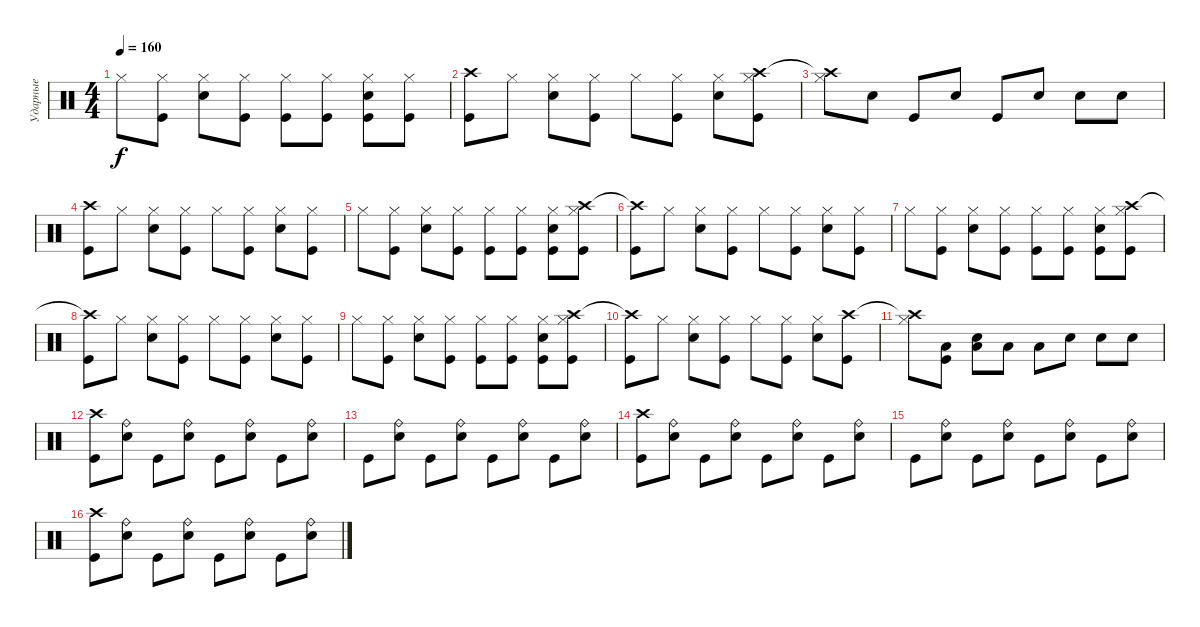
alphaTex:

\track ("Ударные" "Ударные") {instrument percussion}
\staff {score}
\articulation defaults
\ts (4 4)
\tempo 160
\clef neutral
\ks c "Hi-Hat (closed)".8{dy f}
("Hi-Hat (closed)" "Kick (hit)").8 ("Hi-Hat (closed)" "Electric Snare (hit)").8 ("Hi-Hat (closed)" "Kick (hit)").8 ("Hi-Hat (closed)" "Kick (hit)").8 ("Hi-Hat (closed)" "Kick (hit)").8 ("Hi-Hat (closed)" "Electric Snare (hit)" "Kick (hit)").8 ("Hi-Hat (closed)" "Kick (hit)").8 |
("Crash high (hit)" "Kick (hit)").8 "Hi-Hat (closed)".8 ("Hi-Hat (closed)" "Electric Snare (hit)").8 ("Hi-Hat (closed)" "Kick (hit)").8 "Hi-Hat (closed)".8 ("Hi-Hat (closed)" "Kick (hit)").8 ("Hi-Hat (closed)" "Electric Snare (hit)").8 ("Crash high (hit)" "Hi-Hat (closed)" "Kick (hit)").8 |
("Crash high (hit)"{t} "Hi-Hat (closed)").8 "Electric Snare (hit)".8 "Kick (hit)".8 "Electric Snare (hit)".8 "Kick (hit)".8 "Electric Snare (hit)".8 "Electric Snare (hit)".8 "Electric Snare (hit)".8 |
("Crash high (hit)" "Kick (hit)").8 "Hi-Hat (closed)".8 ("Hi-Hat (closed)" "Electric Snare (hit)").8 ("Hi-Hat (closed)" "Kick (hit)").8 "Hi-Hat (closed)".8 ("Hi-Hat (closed)" "Kick (hit)").8 ("Hi-Hat (closed)" "Electric Snare (hit)").8 ("Hi-Hat (closed)" "Kick (hit)").8 |
"Hi-Hat (closed)".8 ("Hi-Hat (closed)" "Kick (hit)").8 ("Hi-Hat (closed)" "Electric Snare (hit)").8 ("Hi-Hat (closed)" "Kick (hit)").8 ("Hi-Hat (closed)" "Kick (hit)").8 ("Hi-Hat (closed)" "Kick (hit)").8 ("Hi-Hat (closed)" "Electric Snare (hit)" "Kick (hit)").8 ("Crash high (hit)" "Hi-Hat (closed)" "Kick (hit)").8 |
("Crash high (hit)"{t} "Kick (hit)").8 "Hi-Hat (closed)".8 ("Hi-Hat (closed)" "Electric Snare (hit)").8 ("Hi-Hat (closed)" "Kick (hit)").8 "Hi-Hat (closed)".8 ("Hi-Hat (closed)" "Kick (hit)").8 ("Hi-Hat (closed)" "Electric Snare (hit)").8 ("Hi-Hat (closed)" "Kick (hit)").8 |
"Hi-Hat (closed)".8 ("Hi-Hat (closed)" "Kick (hit)").8 ("Hi-Hat (closed)" "Electric Snare (hit)").8 ("Hi-Hat (closed)" "Kick (hit)").8 ("Hi-Hat (closed)" "Kick (hit)").8 ("Hi-Hat (closed)" "Kick (hit)").8 ("Hi-Hat (closed)" "Electric Snare (hit)" "Kick (hit)").8 ("Crash high (hit)" "Hi-Hat (closed)" "Kick (hit)").8 |
("Crash high (hit)"{t} "Kick (hit)").8 "Hi-Hat (closed)".8 ("Hi-Hat (closed)" "Electric Snare (hit)").8 ("Hi-Hat (closed)" "Kick (hit)").8 "Hi-Hat (closed)".8 ("Hi-Hat (closed)" "Kick (hit)").8 ("Hi-Hat (closed)" "Electric Snare (hit)").8 ("Hi-Hat (closed)" "Kick (hit)").8 |
"Hi-Hat (closed)".8 ("Hi-Hat (closed)" "Kick (hit)").8 ("Hi-Hat (closed)" "Electric Snare (hit)").8 ("Hi-Hat (closed)" "Kick (hit)").8 ("Hi-Hat (closed)" "Kick (hit)").8 ("Hi-Hat (closed)" "Kick (hit)").8 ("Hi-Hat (closed)" "Electric Snare (hit)" "Kick (hit)").8 ("Crash high (hit)" "Hi-Hat (closed)" "Kick (hit)").8 |
("Crash high (hit)"{t} "Kick (hit)").8 "Hi-Hat (closed)".8 ("Hi-Hat (closed)" "Electric Snare (hit)").8 ("Hi-Hat (closed)" "Kick (hit)").8 "Hi-Hat (closed)".8 ("Hi-Hat (closed)" "Kick (hit)").8 ("Hi-Hat (closed)" "Electric Snare (hit)").8 ("Crash high (hit)" "Kick (hit)").8 |
("Crash high (hit)"{t} "Hi-Hat (closed)").8 ("Low Tom (hit)" "Kick (hit)").8 ("Low Tom (hit)" "Electric Snare (hit)").8 "Low Tom (hit)".8 "Low Tom (hit)".8 "Electric Snare (hit)".8 "Electric Snare (hit)".8 "Electric Snare (hit)".8 |
("Crash high (hit)" "Kick (hit)").8 ("Ride (bell)" "Electric Snare (hit)").8 "Kick (hit)".8 ("Ride (bell)" "Electric Snare (hit)").8 "Kick (hit)".8 ("Ride (bell)" "Electric Snare (hit)").8 "Kick (hit)".8 ("Ride (bell)" "Electric Snare (hit)").8 |
"Kick (hit)".8 ("Ride (bell)" "Electric Snare (hit)").8 "Kick (hit)".8 ("Ride (bell)" "Electric Snare (hit)").8 "Kick (hit)".8 ("Ride (bell)" "Electric Snare (hit)").8 "Kick (hit)".8 ("Ride (bell)" "Electric Snare (hit)").8 |
("Crash high (hit)" "Kick (hit)").8 ("Ride (bell)" "Electric Snare (hit)").8 "Kick (hit)".8 ("Ride (bell)" "Electric Snare (hit)").8 "Kick (hit)".8 ("Ride (bell)" "Electric Snare (hit)").8 "Kick (hit)".8 ("Ride (bell)" "Electric Snare (hit)").8 |
"Kick (hit)".8 ("Ride (bell)" "Electric Snare (hit)").8 "Kick (hit)".8 ("Ride (bell)" "Electric Snare (hit)").8 "Kick (hit)".8 ("Ride (bell)" "Electric Snare (hit)").8 "Kick (hit)".8 ("Ride (bell)" "Electric Snare (hit)").8 |
("Crash high (hit)" "Kick (hit)").8 ("Ride (bell)" "Electric Snare (hit)").8 "Kick (hit)".8 ("Ride (bell)" "Electric Snare (hit)").8 "Kick (hit)".8 ("Ride (bell)" "Electric Snare (hit)").8 "Kick (hit)".8 ("Ride (bell)" "Electric Snare (hit)").8
